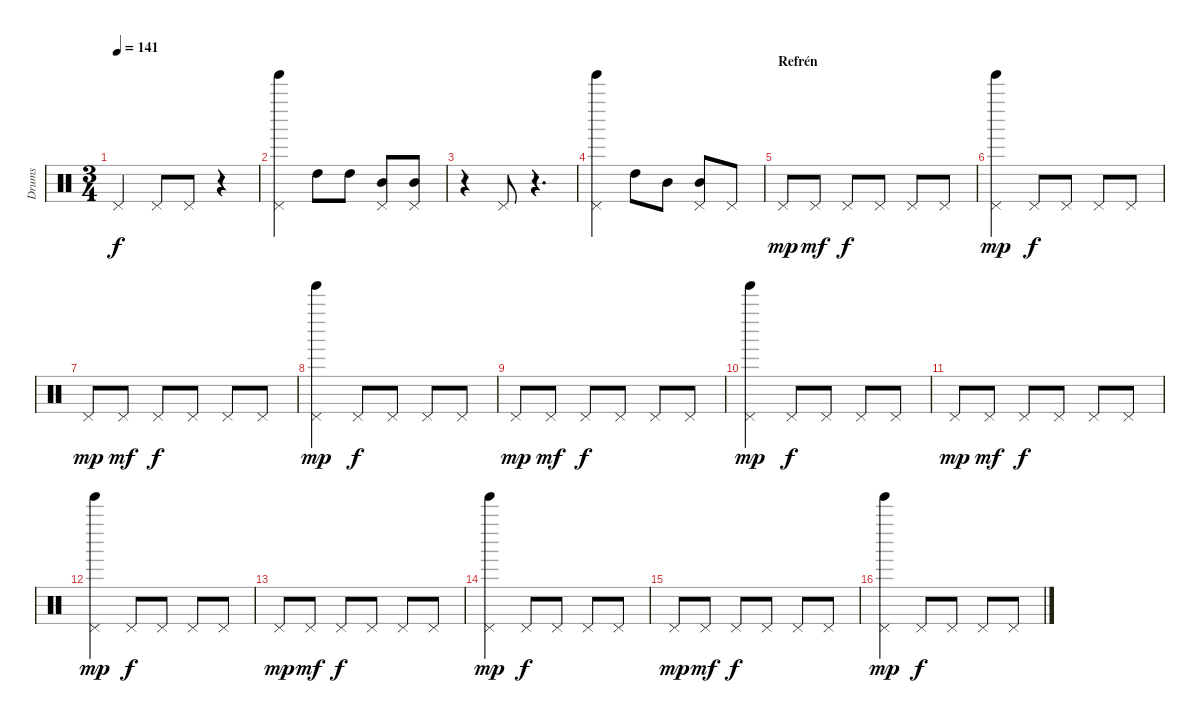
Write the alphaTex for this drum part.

\track ("Drums" "Drums") {instrument percussion}
\staff {score}
\articulation defaults
\ts (3 4)
\tempo 141
\clef neutral
\ks c "Pedal Hi-Hat (hit)".4{dy f} "Pedal Hi-Hat (hit)".8 "Pedal Hi-Hat (hit)".8
r.4 |
("Pedal Hi-Hat (hit)" "Tinkle Bell (hit)").4 "High Tom (hit)".8 "High Tom (hit)".8 ("Pedal Hi-Hat (hit)" "Mid Tom (hit)").8 ("Pedal Hi-Hat (hit)" "Mid Tom (hit)").8 |
r.4 "Pedal Hi-Hat (hit)".8 r.4{d} |
("Pedal Hi-Hat (hit)" "Tinkle Bell (hit)").4 "High Tom (hit)".8 "Mid Tom (hit)".8 ("Pedal Hi-Hat (hit)" "Mid Tom (hit)").8 "Pedal Hi-Hat (hit)".8 |
\section ("" "Refrén")
"Pedal Hi-Hat (hit)".8{dy mp} "Pedal Hi-Hat (hit)".8{dy mf} "Pedal Hi-Hat (hit)".8{dy f} "Pedal Hi-Hat (hit)".8 "Pedal Hi-Hat (hit)".8 "Pedal Hi-Hat (hit)".8 |
("Pedal Hi-Hat (hit)" "Tinkle Bell (hit)").4{dy mp} "Pedal Hi-Hat (hit)".8{dy f} "Pedal Hi-Hat (hit)".8 "Pedal Hi-Hat (hit)".8 "Pedal Hi-Hat (hit)".8 |
"Pedal Hi-Hat (hit)".8{dy mp} "Pedal Hi-Hat (hit)".8{dy mf} "Pedal Hi-Hat (hit)".8{dy f} "Pedal Hi-Hat (hit)".8 "Pedal Hi-Hat (hit)".8 "Pedal Hi-Hat (hit)".8 |
("Pedal Hi-Hat (hit)" "Tinkle Bell (hit)").4{dy mp} "Pedal Hi-Hat (hit)".8{dy f} "Pedal Hi-Hat (hit)".8 "Pedal Hi-Hat (hit)".8 "Pedal Hi-Hat (hit)".8 |
"Pedal Hi-Hat (hit)".8{dy mp} "Pedal Hi-Hat (hit)".8{dy mf} "Pedal Hi-Hat (hit)".8{dy f} "Pedal Hi-Hat (hit)".8 "Pedal Hi-Hat (hit)".8 "Pedal Hi-Hat (hit)".8 |
("Pedal Hi-Hat (hit)" "Tinkle Bell (hit)").4{dy mp} "Pedal Hi-Hat (hit)".8{dy f} "Pedal Hi-Hat (hit)".8 "Pedal Hi-Hat (hit)".8 "Pedal Hi-Hat (hit)".8 |
"Pedal Hi-Hat (hit)".8{dy mp} "Pedal Hi-Hat (hit)".8{dy mf} "Pedal Hi-Hat (hit)".8{dy f} "Pedal Hi-Hat (hit)".8 "Pedal Hi-Hat (hit)".8 "Pedal Hi-Hat (hit)".8 |
("Pedal Hi-Hat (hit)" "Tinkle Bell (hit)").4{dy mp} "Pedal Hi-Hat (hit)".8{dy f} "Pedal Hi-Hat (hit)".8 "Pedal Hi-Hat (hit)".8 "Pedal Hi-Hat (hit)".8 |
"Pedal Hi-Hat (hit)".8{dy mp} "Pedal Hi-Hat (hit)".8{dy mf} "Pedal Hi-Hat (hit)".8{dy f} "Pedal Hi-Hat (hit)".8 "Pedal Hi-Hat (hit)".8 "Pedal Hi-Hat (hit)".8 |
("Pedal Hi-Hat (hit)" "Tinkle Bell (hit)").4{dy mp} "Pedal Hi-Hat (hit)".8{dy f} "Pedal Hi-Hat (hit)".8 "Pedal Hi-Hat (hit)".8 "Pedal Hi-Hat (hit)".8 |
"Pedal Hi-Hat (hit)".8{dy mp} "Pedal Hi-Hat (hit)".8{dy mf} "Pedal Hi-Hat (hit)".8{dy f} "Pedal Hi-Hat (hit)".8 "Pedal Hi-Hat (hit)".8 "Pedal Hi-Hat (hit)".8 |
("Pedal Hi-Hat (hit)" "Tinkle Bell (hit)").4{dy mp} "Pedal Hi-Hat (hit)".8{dy f} "Pedal Hi-Hat (hit)".8 "Pedal Hi-Hat (hit)".8 "Pedal Hi-Hat (hit)".8
